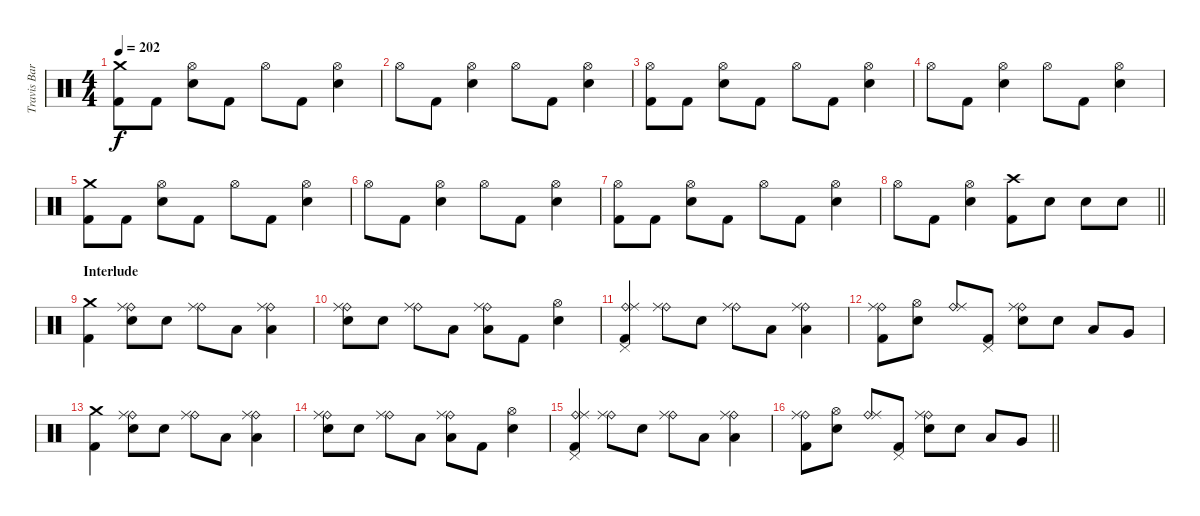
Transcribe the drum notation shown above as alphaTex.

\track ("Travis Barker - Drums" "Travis Bar") {instrument percussion}
\staff {score}
\articulation defaults
\ts (4 4)
\tempo 202
\clef neutral
\ks c
("Crash medium (hit)" "Kick (hit) 2").8{dy f} "Kick (hit) 2".8 ("Hi-Hat (open)" "Electric Snare (hit)").8 "Kick (hit) 2".8 "Hi-Hat (open)".8 "Kick (hit) 2".8 ("Hi-Hat (open)" "Electric Snare (hit)").4 |
"Hi-Hat (open)".8 "Kick (hit) 2".8 ("Hi-Hat (open)" "Electric Snare (hit)").4 "Hi-Hat (open)".8 "Kick (hit) 2".8 ("Hi-Hat (open)" "Electric Snare (hit)").4 |
("Hi-Hat (open)" "Kick (hit) 2").8 "Kick (hit) 2".8 ("Hi-Hat (open)" "Electric Snare (hit)").8 "Kick (hit) 2".8 "Hi-Hat (open)".8 "Kick (hit) 2".8 ("Hi-Hat (open)" "Electric Snare (hit)").4 |
"Hi-Hat (open)".8 "Kick (hit) 2".8 ("Hi-Hat (open)" "Electric Snare (hit)").4 "Hi-Hat (open)".8 "Kick (hit) 2".8 ("Hi-Hat (open)" "Electric Snare (hit)").4 |
("Crash medium (hit)" "Kick (hit) 2").8 "Kick (hit) 2".8 ("Hi-Hat (open)" "Electric Snare (hit)").8 "Kick (hit) 2".8 "Hi-Hat (open)".8 "Kick (hit) 2".8 ("Hi-Hat (open)" "Electric Snare (hit)").4 |
"Hi-Hat (open)".8 "Kick (hit) 2".8 ("Hi-Hat (open)" "Electric Snare (hit)").4 "Hi-Hat (open)".8 "Kick (hit) 2".8 ("Hi-Hat (open)" "Electric Snare (hit)").4 |
("Hi-Hat (open)" "Kick (hit) 2").8 "Kick (hit) 2".8 ("Hi-Hat (open)" "Electric Snare (hit)").8 "Kick (hit) 2".8 "Hi-Hat (open)".8 "Kick (hit) 2".8 ("Hi-Hat (open)" "Electric Snare (hit)").4 |
\barLineRight lightlight "Hi-Hat (open)".8 "Kick (hit) 2".8
("Hi-Hat (open)" "Electric Snare (hit)").4 ("Crash high (hit)" "Kick (hit) 2").8 "Electric Snare (hit)".8 "Electric Snare (hit)".8 "Electric Snare (hit)".8 |
\section ("" "Interlude")
("Crash medium (hit)" "Kick (hit) 2").4 ("Ride (bell)" "Ride (middle)" "Electric Snare (hit)").8 "Electric Snare (hit)".8 ("Ride (bell)" "Ride (middle)").8 "Low Tom (hit)".8 ("Ride (bell)" "Ride (middle)" "Low Tom (hit)").4 |
("Ride (bell)" "Ride (middle)" "Electric Snare (hit)").8 "Electric Snare (hit)".8 ("Ride (bell)" "Ride (middle)").8 "Low Tom (hit)".8 ("Ride (bell)" "Ride (middle)" "Low Tom (hit)").8 "Kick (hit) 2".8 ("Hi-Hat (open)" "Electric Snare (hit)").4 |
("Ride (bell)" "Ride (middle)" "Pedal Hi-Hat (hit)" "Kick (hit) 2").4 ("Ride (bell)" "Ride (middle)").8 "Electric Snare (hit)".8 ("Ride (bell)" "Ride (middle)").8 "Low Tom (hit)".8 ("Ride (bell)" "Ride (middle)" "Low Tom (hit)").4 |
("Ride (bell)" "Ride (middle)" "Kick (hit) 2").8 ("Hi-Hat (open)" "Electric Snare (hit)").8 ("Ride (bell)" "Ride (middle)").8 ("Pedal Hi-Hat (hit)" "Kick (hit) 2").8 ("Ride (bell)" "Ride (middle)" "Electric Snare (hit)").8 "Electric Snare (hit)".8 "Low Tom (hit)".8 "Very Low Tom (hit)".8 |
("Crash medium (hit)" "Kick (hit) 2").4 ("Ride (bell)" "Ride (middle)" "Electric Snare (hit)").8 "Electric Snare (hit)".8 ("Ride (bell)" "Ride (middle)").8 "Low Tom (hit)".8 ("Ride (bell)" "Ride (middle)" "Low Tom (hit)").4 |
("Ride (bell)" "Ride (middle)" "Electric Snare (hit)").8 "Electric Snare (hit)".8 ("Ride (bell)" "Ride (middle)").8 "Low Tom (hit)".8 ("Ride (bell)" "Ride (middle)" "Low Tom (hit)").8 "Kick (hit) 2".8 ("Hi-Hat (open)" "Electric Snare (hit)").4 |
("Ride (bell)" "Ride (middle)" "Pedal Hi-Hat (hit)" "Kick (hit) 2").4 ("Ride (bell)" "Ride (middle)").8 "Electric Snare (hit)".8 ("Ride (bell)" "Ride (middle)").8 "Low Tom (hit)".8 ("Ride (bell)" "Ride (middle)" "Low Tom (hit)").4 |
\barLineRight lightlight
("Ride (bell)" "Ride (middle)" "Kick (hit) 2").8 ("Hi-Hat (open)" "Electric Snare (hit)").8 ("Ride (bell)" "Ride (middle)").8 ("Pedal Hi-Hat (hit)" "Kick (hit) 2").8 ("Ride (bell)" "Ride (middle)" "Electric Snare (hit)").8 "Electric Snare (hit)".8 "Low Tom (hit)".8 "Very Low Tom (hit)".8
